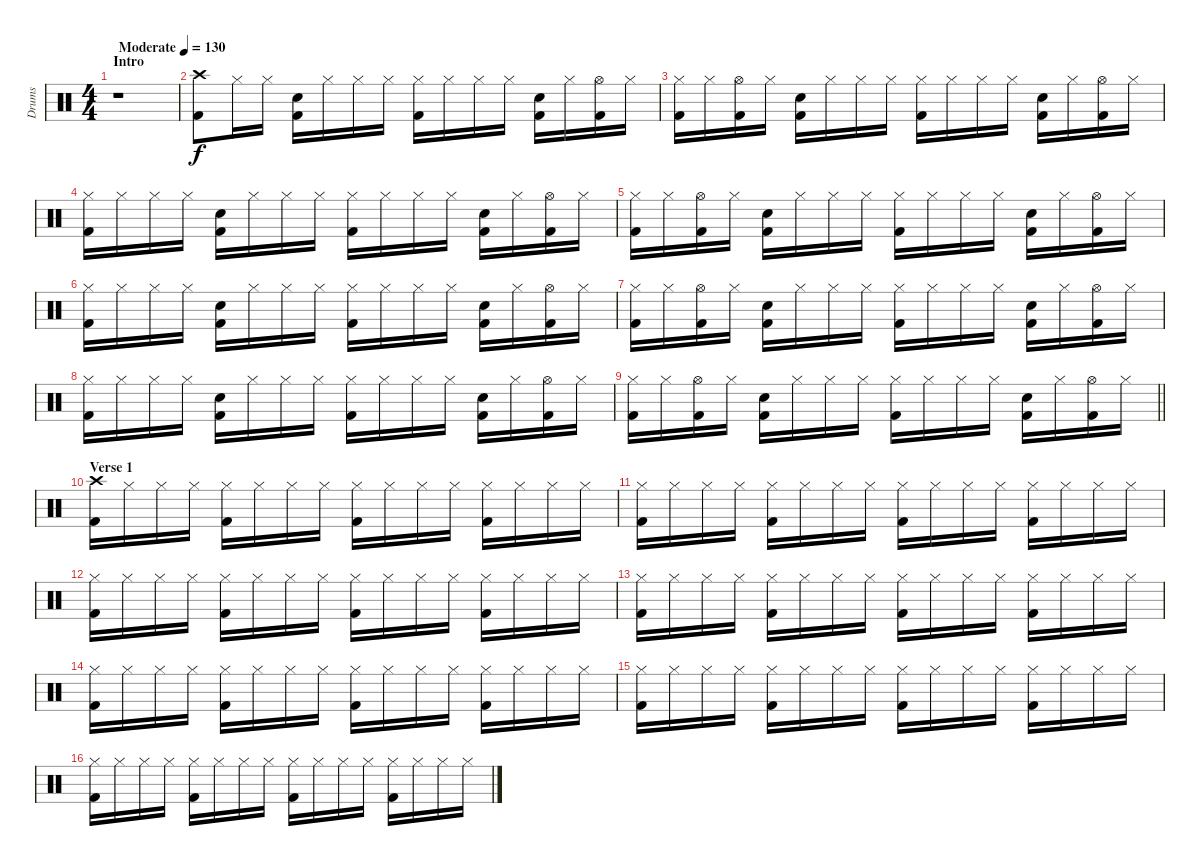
\track ("Drums" "Drums") {instrument percussion}
\staff {score}
\articulation defaults
\ts (4 4)
\section ("" "Intro")
\tempo (130 "Moderate")
\clef neutral
\ks c
r.1{dy f} |
("Crash high (hit)" "Kick (hit) 2").8 "Hi-Hat (closed)".16 "Hi-Hat (closed)".16 ("Electric Snare (hit)" "Kick (hit) 2").16 "Hi-Hat (closed)".16 "Hi-Hat (closed)".16 "Hi-Hat (closed)".16 ("Hi-Hat (closed)" "Kick (hit) 2").16 "Hi-Hat (closed)".16 "Hi-Hat (closed)".16 "Hi-Hat (closed)".16 ("Electric Snare (hit)" "Kick (hit) 2").16 "Hi-Hat (closed)".16 ("Hi-Hat (open)" "Kick (hit) 2").16 "Hi-Hat (closed)".16 |
("Hi-Hat (closed)" "Kick (hit) 2").16 "Hi-Hat (closed)".16 ("Hi-Hat (open)" "Kick (hit) 2").16 "Hi-Hat (closed)".16 ("Electric Snare (hit)" "Kick (hit) 2").16 "Hi-Hat (closed)".16 "Hi-Hat (closed)".16 "Hi-Hat (closed)".16 ("Hi-Hat (closed)" "Kick (hit) 2").16 "Hi-Hat (closed)".16 "Hi-Hat (closed)".16 "Hi-Hat (closed)".16 ("Electric Snare (hit)" "Kick (hit) 2").16 "Hi-Hat (closed)".16 ("Hi-Hat (open)" "Kick (hit) 2").16 "Hi-Hat (closed)".16 |
("Hi-Hat (closed)" "Kick (hit) 2").16 "Hi-Hat (closed)".16 "Hi-Hat (closed)".16 "Hi-Hat (closed)".16 ("Electric Snare (hit)" "Kick (hit) 2").16 "Hi-Hat (closed)".16 "Hi-Hat (closed)".16 "Hi-Hat (closed)".16 ("Hi-Hat (closed)" "Kick (hit) 2").16 "Hi-Hat (closed)".16 "Hi-Hat (closed)".16 "Hi-Hat (closed)".16 ("Electric Snare (hit)" "Kick (hit) 2").16 "Hi-Hat (closed)".16 ("Hi-Hat (open)" "Kick (hit) 2").16 "Hi-Hat (closed)".16 |
("Hi-Hat (closed)" "Kick (hit) 2").16 "Hi-Hat (closed)".16 ("Hi-Hat (open)" "Kick (hit) 2").16 "Hi-Hat (closed)".16 ("Electric Snare (hit)" "Kick (hit) 2").16 "Hi-Hat (closed)".16 "Hi-Hat (closed)".16 "Hi-Hat (closed)".16 ("Hi-Hat (closed)" "Kick (hit) 2").16 "Hi-Hat (closed)".16 "Hi-Hat (closed)".16 "Hi-Hat (closed)".16 ("Electric Snare (hit)" "Kick (hit) 2").16 "Hi-Hat (closed)".16 ("Hi-Hat (open)" "Kick (hit) 2").16 "Hi-Hat (closed)".16 |
("Hi-Hat (closed)" "Kick (hit) 2").16 "Hi-Hat (closed)".16 "Hi-Hat (closed)".16 "Hi-Hat (closed)".16 ("Electric Snare (hit)" "Kick (hit) 2").16 "Hi-Hat (closed)".16 "Hi-Hat (closed)".16 "Hi-Hat (closed)".16 ("Hi-Hat (closed)" "Kick (hit) 2").16 "Hi-Hat (closed)".16 "Hi-Hat (closed)".16 "Hi-Hat (closed)".16 ("Electric Snare (hit)" "Kick (hit) 2").16 "Hi-Hat (closed)".16 ("Hi-Hat (open)" "Kick (hit) 2").16 "Hi-Hat (closed)".16 |
("Hi-Hat (closed)" "Kick (hit) 2").16 "Hi-Hat (closed)".16 ("Hi-Hat (open)" "Kick (hit) 2").16 "Hi-Hat (closed)".16 ("Electric Snare (hit)" "Kick (hit) 2").16 "Hi-Hat (closed)".16 "Hi-Hat (closed)".16 "Hi-Hat (closed)".16 ("Hi-Hat (closed)" "Kick (hit) 2").16 "Hi-Hat (closed)".16 "Hi-Hat (closed)".16 "Hi-Hat (closed)".16 ("Electric Snare (hit)" "Kick (hit) 2").16 "Hi-Hat (closed)".16 ("Hi-Hat (open)" "Kick (hit) 2").16 "Hi-Hat (closed)".16 |
("Hi-Hat (closed)" "Kick (hit) 2").16 "Hi-Hat (closed)".16 "Hi-Hat (closed)".16 "Hi-Hat (closed)".16 ("Electric Snare (hit)" "Kick (hit) 2").16 "Hi-Hat (closed)".16 "Hi-Hat (closed)".16 "Hi-Hat (closed)".16 ("Hi-Hat (closed)" "Kick (hit) 2").16 "Hi-Hat (closed)".16 "Hi-Hat (closed)".16 "Hi-Hat (closed)".16 ("Electric Snare (hit)" "Kick (hit) 2").16 "Hi-Hat (closed)".16 ("Hi-Hat (open)" "Kick (hit) 2").16 "Hi-Hat (closed)".16 |
\barLineRight lightlight
("Hi-Hat (closed)" "Kick (hit) 2").16 "Hi-Hat (closed)".16 ("Hi-Hat (open)" "Kick (hit) 2").16 "Hi-Hat (closed)".16 ("Electric Snare (hit)" "Kick (hit) 2").16 "Hi-Hat (closed)".16 "Hi-Hat (closed)".16 "Hi-Hat (closed)".16 ("Hi-Hat (closed)" "Kick (hit) 2").16 "Hi-Hat (closed)".16 "Hi-Hat (closed)".16 "Hi-Hat (closed)".16 ("Electric Snare (hit)" "Kick (hit) 2").16 "Hi-Hat (closed)".16 ("Hi-Hat (open)" "Kick (hit) 2").16 "Hi-Hat (closed)".16 |
\section ("" "Verse 1")
("Crash high (hit)" "Kick (hit) 2").16 "Hi-Hat (closed)".16 "Hi-Hat (closed)".16 "Hi-Hat (closed)".16 ("Hi-Hat (closed)" "Kick (hit) 2").16 "Hi-Hat (closed)".16 "Hi-Hat (closed)".16 "Hi-Hat (closed)".16 ("Hi-Hat (closed)" "Kick (hit) 2").16 "Hi-Hat (closed)".16 "Hi-Hat (closed)".16 "Hi-Hat (closed)".16 ("Hi-Hat (closed)" "Kick (hit) 2").16 "Hi-Hat (closed)".16 "Hi-Hat (closed)".16 "Hi-Hat (closed)".16 |
("Hi-Hat (closed)" "Kick (hit) 2").16 "Hi-Hat (closed)".16 "Hi-Hat (closed)".16 "Hi-Hat (closed)".16 ("Hi-Hat (closed)" "Kick (hit) 2").16 "Hi-Hat (closed)".16 "Hi-Hat (closed)".16 "Hi-Hat (closed)".16 ("Hi-Hat (closed)" "Kick (hit) 2").16 "Hi-Hat (closed)".16 "Hi-Hat (closed)".16 "Hi-Hat (closed)".16 ("Hi-Hat (closed)" "Kick (hit) 2").16 "Hi-Hat (closed)".16 "Hi-Hat (closed)".16 "Hi-Hat (closed)".16 |
("Hi-Hat (closed)" "Kick (hit) 2").16 "Hi-Hat (closed)".16 "Hi-Hat (closed)".16 "Hi-Hat (closed)".16 ("Hi-Hat (closed)" "Kick (hit) 2").16 "Hi-Hat (closed)".16 "Hi-Hat (closed)".16 "Hi-Hat (closed)".16 ("Hi-Hat (closed)" "Kick (hit) 2").16 "Hi-Hat (closed)".16 "Hi-Hat (closed)".16 "Hi-Hat (closed)".16 ("Hi-Hat (closed)" "Kick (hit) 2").16 "Hi-Hat (closed)".16 "Hi-Hat (closed)".16 "Hi-Hat (closed)".16 |
("Hi-Hat (closed)" "Kick (hit) 2").16 "Hi-Hat (closed)".16 "Hi-Hat (closed)".16 "Hi-Hat (closed)".16 ("Hi-Hat (closed)" "Kick (hit) 2").16 "Hi-Hat (closed)".16 "Hi-Hat (closed)".16 "Hi-Hat (closed)".16 ("Hi-Hat (closed)" "Kick (hit) 2").16 "Hi-Hat (closed)".16 "Hi-Hat (closed)".16 "Hi-Hat (closed)".16 ("Hi-Hat (closed)" "Kick (hit) 2").16 "Hi-Hat (closed)".16 "Hi-Hat (closed)".16 "Hi-Hat (closed)".16 |
("Hi-Hat (closed)" "Kick (hit) 2").16 "Hi-Hat (closed)".16 "Hi-Hat (closed)".16 "Hi-Hat (closed)".16 ("Hi-Hat (closed)" "Kick (hit) 2").16 "Hi-Hat (closed)".16 "Hi-Hat (closed)".16 "Hi-Hat (closed)".16 ("Hi-Hat (closed)" "Kick (hit) 2").16 "Hi-Hat (closed)".16 "Hi-Hat (closed)".16 "Hi-Hat (closed)".16 ("Hi-Hat (closed)" "Kick (hit) 2").16 "Hi-Hat (closed)".16 "Hi-Hat (closed)".16 "Hi-Hat (closed)".16 |
("Hi-Hat (closed)" "Kick (hit) 2").16 "Hi-Hat (closed)".16 "Hi-Hat (closed)".16 "Hi-Hat (closed)".16 ("Hi-Hat (closed)" "Kick (hit) 2").16 "Hi-Hat (closed)".16 "Hi-Hat (closed)".16 "Hi-Hat (closed)".16 ("Hi-Hat (closed)" "Kick (hit) 2").16 "Hi-Hat (closed)".16 "Hi-Hat (closed)".16 "Hi-Hat (closed)".16 ("Hi-Hat (closed)" "Kick (hit) 2").16 "Hi-Hat (closed)".16 "Hi-Hat (closed)".16 "Hi-Hat (closed)".16 |
("Hi-Hat (closed)" "Kick (hit) 2").16 "Hi-Hat (closed)".16 "Hi-Hat (closed)".16 "Hi-Hat (closed)".16 ("Hi-Hat (closed)" "Kick (hit) 2").16 "Hi-Hat (closed)".16 "Hi-Hat (closed)".16 "Hi-Hat (closed)".16 ("Hi-Hat (closed)" "Kick (hit) 2").16 "Hi-Hat (closed)".16 "Hi-Hat (closed)".16 "Hi-Hat (closed)".16 ("Hi-Hat (closed)" "Kick (hit) 2").16 "Hi-Hat (closed)".16 "Hi-Hat (closed)".16 "Hi-Hat (closed)".16
